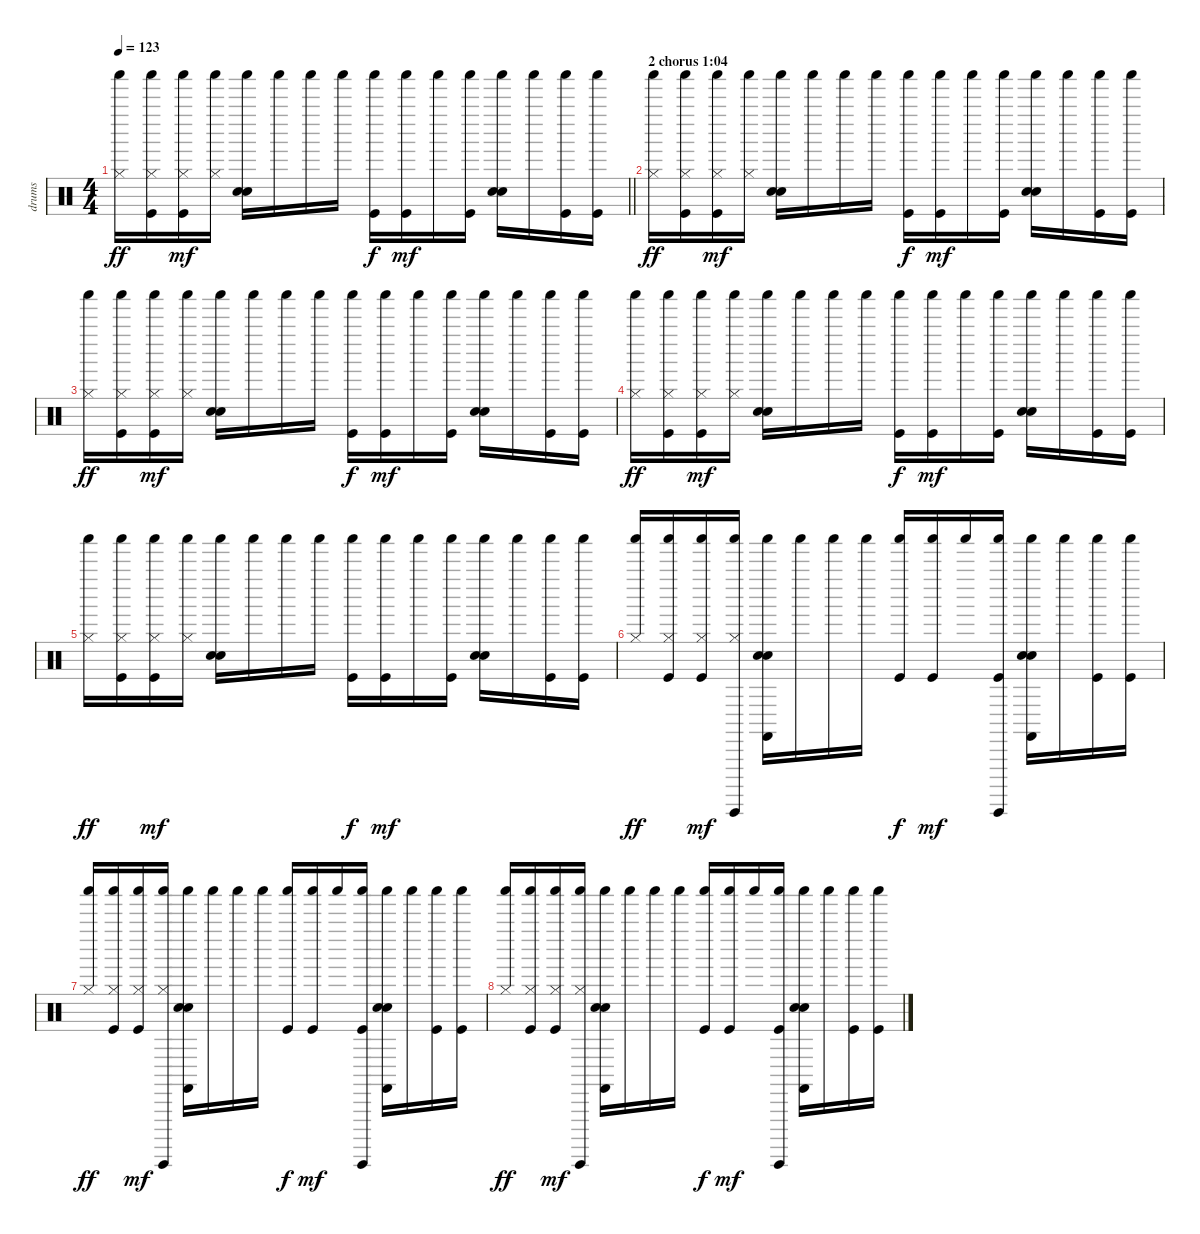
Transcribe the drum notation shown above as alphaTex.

\track ("drums" "drums") {instrument percussion}
\staff {score}
\articulation defaults
\ts (4 4)
\tempo 123
\clef neutral
\barLineRight lightlight
\ks c
("Shaker (hit)" "Hi-Hat (closed)").16{dy ff} ("Shaker (hit)" "Hi-Hat (closed)" "Kick (hit)").16 ("Shaker (hit)" "Hi-Hat (closed)" "Kick (hit)").16{dy mf} ("Shaker (hit)" "Hi-Hat (closed)").16 ("Shaker (hit)" "Electric Snare (hit)" "Hand Clap (hit)").16 "Shaker (hit)".16 "Shaker (hit)".16 "Shaker (hit)".16 ("Shaker (hit)" "Kick (hit)").16{dy f} ("Shaker (hit)" "Kick (hit)").16{dy mf} "Shaker (hit)".16 ("Shaker (hit)" "Kick (hit)").16 ("Shaker (hit)" "Electric Snare (hit)" "Hand Clap (hit)").16 "Shaker (hit)".16 ("Shaker (hit)" "Kick (hit)").16 ("Shaker (hit)" "Kick (hit)").16 |
\section ("" "2 chorus 1:04")
("Shaker (hit)" "Hi-Hat (closed)").16{dy ff} ("Shaker (hit)" "Hi-Hat (closed)" "Kick (hit)").16 ("Shaker (hit)" "Hi-Hat (closed)" "Kick (hit)").16{dy mf} ("Shaker (hit)" "Hi-Hat (closed)").16 ("Shaker (hit)" "Electric Snare (hit)" "Hand Clap (hit)").16 "Shaker (hit)".16 "Shaker (hit)".16 "Shaker (hit)".16 ("Shaker (hit)" "Kick (hit)").16{dy f} ("Shaker (hit)" "Kick (hit)").16{dy mf} "Shaker (hit)".16 ("Shaker (hit)" "Kick (hit)").16 ("Shaker (hit)" "Electric Snare (hit)" "Hand Clap (hit)").16 "Shaker (hit)".16 ("Shaker (hit)" "Kick (hit)").16 ("Shaker (hit)" "Kick (hit)").16 |
("Shaker (hit)" "Hi-Hat (closed)").16{dy ff} ("Shaker (hit)" "Hi-Hat (closed)" "Kick (hit)").16 ("Shaker (hit)" "Hi-Hat (closed)" "Kick (hit)").16{dy mf} ("Shaker (hit)" "Hi-Hat (closed)").16 ("Shaker (hit)" "Electric Snare (hit)" "Hand Clap (hit)").16 "Shaker (hit)".16 "Shaker (hit)".16 "Shaker (hit)".16 ("Shaker (hit)" "Kick (hit)").16{dy f} ("Shaker (hit)" "Kick (hit)").16{dy mf} "Shaker (hit)".16 ("Shaker (hit)" "Kick (hit)").16 ("Shaker (hit)" "Electric Snare (hit)" "Hand Clap (hit)").16 "Shaker (hit)".16 ("Shaker (hit)" "Kick (hit)").16 ("Shaker (hit)" "Kick (hit)").16 |
("Shaker (hit)" "Hi-Hat (closed)").16{dy ff} ("Shaker (hit)" "Hi-Hat (closed)" "Kick (hit)").16 ("Shaker (hit)" "Hi-Hat (closed)" "Kick (hit)").16{dy mf} ("Shaker (hit)" "Hi-Hat (closed)").16 ("Shaker (hit)" "Electric Snare (hit)" "Hand Clap (hit)").16 "Shaker (hit)".16 "Shaker (hit)".16 "Shaker (hit)".16 ("Shaker (hit)" "Kick (hit)").16{dy f} ("Shaker (hit)" "Kick (hit)").16{dy mf} "Shaker (hit)".16 ("Shaker (hit)" "Kick (hit)").16 ("Shaker (hit)" "Electric Snare (hit)" "Hand Clap (hit)").16 "Shaker (hit)".16 ("Shaker (hit)" "Kick (hit)").16 ("Shaker (hit)" "Kick (hit)").16 |
("Shaker (hit)" "Hi-Hat (closed)").16{dy ff} ("Shaker (hit)" "Hi-Hat (closed)" "Kick (hit)").16 ("Shaker (hit)" "Hi-Hat (closed)" "Kick (hit)").16{dy mf} ("Shaker (hit)" "Hi-Hat (closed)").16 ("Shaker (hit)" "Electric Snare (hit)" "Hand Clap (hit)").16 "Shaker (hit)".16 "Shaker (hit)".16 "Shaker (hit)".16 ("Shaker (hit)" "Kick (hit)").16{dy f} ("Shaker (hit)" "Kick (hit)").16{dy mf} "Shaker (hit)".16 ("Shaker (hit)" "Kick (hit)").16 ("Shaker (hit)" "Electric Snare (hit)" "Hand Clap (hit)").16 "Shaker (hit)".16 ("Shaker (hit)" "Kick (hit)").16 ("Shaker (hit)" "Kick (hit)").16 |
("Shaker (hit)" "Hi-Hat (closed)").16{dy ff} ("Shaker (hit)" "Hi-Hat (closed)" "Kick (hit)").16 ("Shaker (hit)" "Hi-Hat (closed)" "Kick (hit)").16{dy mf} ("Shaker (hit)" "Hi-Hat (closed)" "Guiro (hit)").16 ("Shaker (hit)" "Electric Snare (hit)" "Hand Clap (hit)" "Castanets (hit)").16 "Shaker (hit)".16 "Shaker (hit)".16 "Shaker (hit)".16 ("Shaker (hit)" "Kick (hit)").16{dy f} ("Shaker (hit)" "Kick (hit)").16{dy mf} "Shaker (hit)".16 ("Shaker (hit)" "Guiro (hit)" "Kick (hit)").16 ("Shaker (hit)" "Electric Snare (hit)" "Hand Clap (hit)" "Castanets (hit)").16 "Shaker (hit)".16 ("Shaker (hit)" "Kick (hit)").16 ("Shaker (hit)" "Kick (hit)").16 |
("Shaker (hit)" "Hi-Hat (closed)").16{dy ff} ("Shaker (hit)" "Hi-Hat (closed)" "Kick (hit)").16 ("Shaker (hit)" "Hi-Hat (closed)" "Kick (hit)").16{dy mf} ("Shaker (hit)" "Hi-Hat (closed)" "Guiro (hit)").16 ("Shaker (hit)" "Electric Snare (hit)" "Hand Clap (hit)" "Castanets (hit)").16 "Shaker (hit)".16 "Shaker (hit)".16 "Shaker (hit)".16 ("Shaker (hit)" "Kick (hit)").16{dy f} ("Shaker (hit)" "Kick (hit)").16{dy mf} "Shaker (hit)".16 ("Shaker (hit)" "Guiro (hit)" "Kick (hit)").16 ("Shaker (hit)" "Electric Snare (hit)" "Hand Clap (hit)" "Castanets (hit)").16 "Shaker (hit)".16 ("Shaker (hit)" "Kick (hit)").16 ("Shaker (hit)" "Kick (hit)").16 |
("Shaker (hit)" "Hi-Hat (closed)").16{dy ff} ("Shaker (hit)" "Hi-Hat (closed)" "Kick (hit)").16 ("Shaker (hit)" "Hi-Hat (closed)" "Kick (hit)").16{dy mf} ("Shaker (hit)" "Hi-Hat (closed)" "Guiro (hit)").16 ("Shaker (hit)" "Electric Snare (hit)" "Hand Clap (hit)" "Castanets (hit)").16 "Shaker (hit)".16 "Shaker (hit)".16 "Shaker (hit)".16 ("Shaker (hit)" "Kick (hit)").16{dy f} ("Shaker (hit)" "Kick (hit)").16{dy mf} "Shaker (hit)".16 ("Shaker (hit)" "Guiro (hit)" "Kick (hit)").16 ("Shaker (hit)" "Electric Snare (hit)" "Hand Clap (hit)" "Castanets (hit)").16 "Shaker (hit)".16 ("Shaker (hit)" "Kick (hit)").16 ("Shaker (hit)" "Kick (hit)").16
